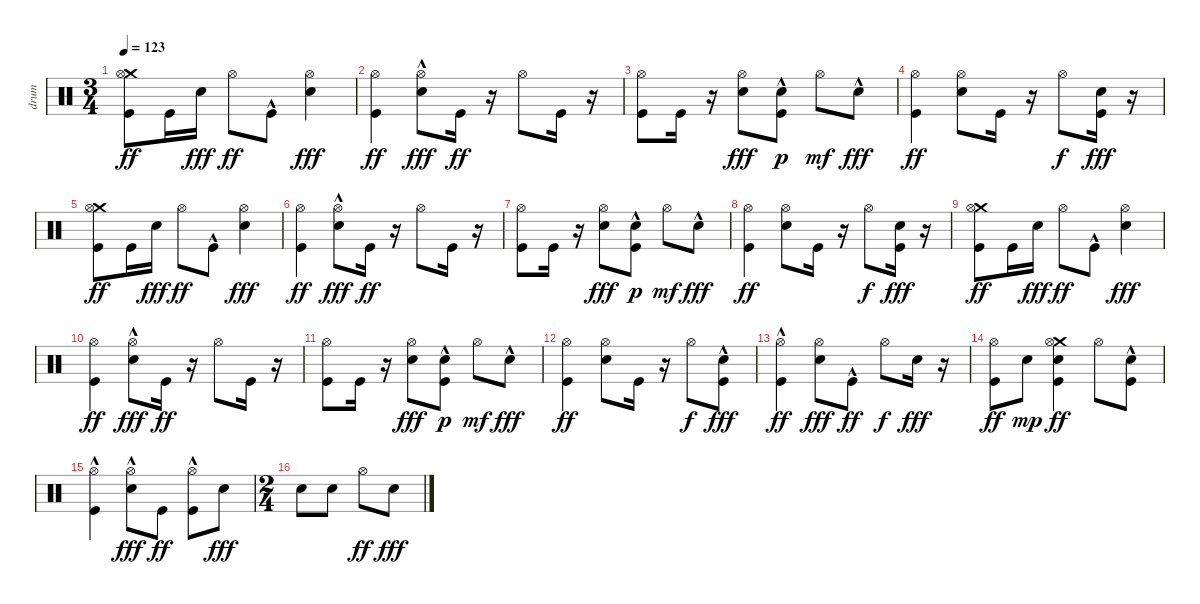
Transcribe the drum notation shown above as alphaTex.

\track ("drum" "drum") {instrument percussion}
\staff {score}
\articulation defaults
\ts (3 4)
\tempo 123
\clef neutral
\ks c
("Crash medium (hit)" "Kick (hit)" "Hi-Hat (open)").8{dy ff} "Kick (hit)".16 "Electric Snare (hit)".16{dy fff} "Hi-Hat (open)".8{dy ff} "Kick (hit)"{hac}.8 ("Hi-Hat (open)" "Electric Snare (hit)").4{dy fff} |
("Kick (hit)" "Hi-Hat (open)").4{dy ff} ("Hi-Hat (open)" "Electric Snare (hit)"{hac}).8{dy fff} "Kick (hit)".16{dy ff} r.16 "Hi-Hat (open)".8 "Kick (hit)".16 r.16 |
("Kick (hit)" "Hi-Hat (open)").8 "Kick (hit)".16 r.16 ("Electric Snare (hit)" "Hi-Hat (open)").8{dy fff} ("Kick (hit)"{hac} "Electric Snare (hit)").8{dy p} "Hi-Hat (open)".8{dy mf} "Electric Snare (hit)"{hac}.8{dy fff} |
("Kick (hit)" "Hi-Hat (open)").4{dy ff} ("Electric Snare (hit)" "Hi-Hat (open)").8 "Kick (hit)".16 r.16 "Hi-Hat (open)".8{dy f} ("Kick (hit)" "Electric Snare (hit)").16{dy fff} r.16 |
("Crash medium (hit)" "Kick (hit)" "Hi-Hat (open)").8{dy ff} "Kick (hit)".16 "Electric Snare (hit)".16{dy fff} "Hi-Hat (open)".8{dy ff} "Kick (hit)"{hac}.8 ("Hi-Hat (open)" "Electric Snare (hit)").4{dy fff} |
("Kick (hit)" "Hi-Hat (open)").4{dy ff} ("Hi-Hat (open)" "Electric Snare (hit)"{hac}).8{dy fff} "Kick (hit)".16{dy ff} r.16 "Hi-Hat (open)".8 "Kick (hit)".16 r.16 |
("Kick (hit)" "Hi-Hat (open)").8 "Kick (hit)".16 r.16 ("Electric Snare (hit)" "Hi-Hat (open)").8{dy fff} ("Kick (hit)"{hac} "Electric Snare (hit)").8{dy p} "Hi-Hat (open)".8{dy mf} "Electric Snare (hit)"{hac}.8{dy fff} |
("Kick (hit)" "Hi-Hat (open)").4{dy ff} ("Electric Snare (hit)" "Hi-Hat (open)").8 "Kick (hit)".16 r.16 "Hi-Hat (open)".8{dy f} ("Kick (hit)" "Electric Snare (hit)").16{dy fff} r.16 |
("Crash medium (hit)" "Kick (hit)" "Hi-Hat (open)").8{dy ff} "Kick (hit)".16 "Electric Snare (hit)".16{dy fff} "Hi-Hat (open)".8{dy ff} "Kick (hit)"{hac}.8 ("Hi-Hat (open)" "Electric Snare (hit)").4{dy fff} |
("Kick (hit)" "Hi-Hat (open)").4{dy ff} ("Hi-Hat (open)" "Electric Snare (hit)"{hac}).8{dy fff} "Kick (hit)".16{dy ff} r.16 "Hi-Hat (open)".8 "Kick (hit)".16 r.16 |
("Kick (hit)" "Hi-Hat (open)").8 "Kick (hit)".16 r.16 ("Electric Snare (hit)" "Hi-Hat (open)").8{dy fff} ("Kick (hit)"{hac} "Electric Snare (hit)").8{dy p} "Hi-Hat (open)".8{dy mf} "Electric Snare (hit)"{hac}.8{dy fff} |
("Kick (hit)" "Hi-Hat (open)").4{dy ff} ("Electric Snare (hit)" "Hi-Hat (open)").8 "Kick (hit)".16 r.16 "Hi-Hat (open)".8{dy f} ("Kick (hit)" "Electric Snare (hit)"{hac}).8{dy fff} |
("Hi-Hat (open)" "Kick (hit)"{hac}).4{dy ff} ("Hi-Hat (open)" "Electric Snare (hit)").8{dy fff} "Kick (hit)"{hac}.8{dy ff} "Hi-Hat (open)".8{dy f} "Electric Snare (hit)".16{dy fff} r.16 |
("Hi-Hat (open)" "Kick (hit)").8{dy ff} "Electric Snare (hit)".8{dy mp} ("Kick (hit)" "Crash medium (hit)" "Electric Snare (hit)" "Hi-Hat (open)").4{dy ff} "Hi-Hat (open)".8 ("Electric Snare (hit)"{hac} "Kick (hit)").8 |
("Hi-Hat (open)" "Kick (hit)"{hac}).4 ("Hi-Hat (open)" "Electric Snare (hit)"{hac}).8{dy fff} "Kick (hit)".8{dy ff} ("Hi-Hat (open)" "Kick (hit)"{hac}).8 "Electric Snare (hit)".8{dy fff} |
\ts (2 4)
"Electric Snare (hit)".8 "Electric Snare (hit)".8 "Hi-Hat (open)".8{dy ff} "Electric Snare (hit)".8{dy fff}
